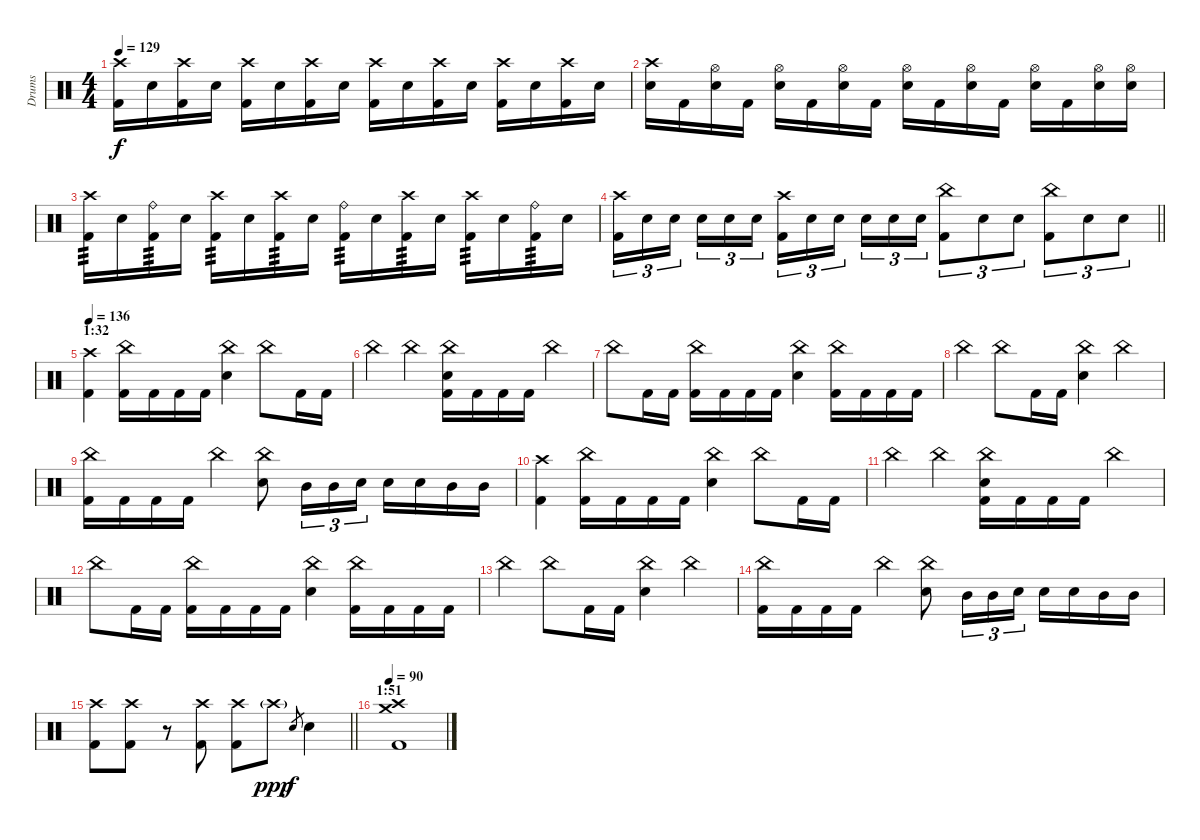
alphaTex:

\track ("Drums" "Drums") {instrument percussion}
\staff {score}
\articulation defaults
\ts (4 4)
\tempo 129
\clef neutral
\ks c
("Crash high (hit)" "Kick (hit) 2").16{dy f} "Electric Snare (hit)".16 ("Crash high (hit)" "Kick (hit) 2").16 "Electric Snare (hit)".16 ("Crash high (hit)" "Kick (hit) 2").16 "Electric Snare (hit)".16 ("Crash high (hit)" "Kick (hit) 2").16 "Electric Snare (hit)".16 ("Crash high (hit)" "Kick (hit) 2").16 "Electric Snare (hit)".16 ("Crash high (hit)" "Kick (hit) 2").16 "Electric Snare (hit)".16 ("Crash high (hit)" "Kick (hit) 2").16 "Electric Snare (hit)".16 ("Crash high (hit)" "Kick (hit) 2").16 "Electric Snare (hit)".16 |
("Electric Snare (hit)" "Crash high (hit)").16 "Kick (hit) 2".16 ("Electric Snare (hit)" "Hi-Hat (open)").16 "Kick (hit) 2".16 ("Electric Snare (hit)" "Hi-Hat (open)").16 "Kick (hit) 2".16 ("Electric Snare (hit)" "Hi-Hat (open)").16 "Kick (hit) 2".16 ("Electric Snare (hit)" "Hi-Hat (open)").16 "Kick (hit) 2".16 ("Electric Snare (hit)" "Hi-Hat (open)").16 "Kick (hit) 2".16 ("Electric Snare (hit)" "Hi-Hat (open)").16 "Kick (hit) 2".16 ("Electric Snare (hit)" "Hi-Hat (open)").16 ("Electric Snare (hit)" "Hi-Hat (open)").16 |
("Crash high (hit)" "Kick (hit) 2").16{tp 3} "Electric Snare (hit)".16 ("Kick (hit) 2" "Ride (bell)").16{tp 3} "Electric Snare (hit)".16 ("Crash high (hit)" "Kick (hit) 2").16{tp 3} "Electric Snare (hit)".16 ("Crash high (hit)" "Kick (hit) 2").16{tp 3} "Electric Snare (hit)".16 ("Kick (hit) 2" "Ride (bell)").16{tp 3} "Electric Snare (hit)".16 ("Crash high (hit)" "Kick (hit) 2").16{tp 3} "Electric Snare (hit)".16 ("Crash high (hit)" "Kick (hit) 2").16{tp 3} "Electric Snare (hit)".16 ("Kick (hit) 2" "Ride (bell)").16{tp 3} "Electric Snare (hit)".16 |
\barLineRight lightlight
("Kick (hit) 2" "Crash high (hit)").16{tu (3 2)} "Electric Snare (hit)".16{tu (3 2)} "Electric Snare (hit)".16{tu (3 2)} "Electric Snare (hit)".16{tu (3 2)} "Electric Snare (hit)".16{tu (3 2)} "Electric Snare (hit)".16{tu (3 2)} ("Crash high (hit)" "Kick (hit) 2").16{tu (3 2)} "Electric Snare (hit)".16{tu (3 2)} "Electric Snare (hit)".16{tu (3 2)} "Electric Snare (hit)".16{tu (3 2)} "Electric Snare (hit)".16{tu (3 2)} "Electric Snare (hit)".16{tu (3 2)} ("China (hit)" "Kick (hit) 2").8{tu (3 2)} "Electric Snare (hit)".8{tu (3 2)} "Electric Snare (hit)".8{tu (3 2)} ("China (hit)" "Kick (hit) 2").8{tu (3 2)} "Electric Snare (hit)".8{tu (3 2)} "Electric Snare (hit)".8{tu (3 2)} |
\section ("" "1:32")
\tempo 136
("Crash high (hit)" "Kick (hit) 2").4 ("China (hit)" "Kick (hit) 2").16 "Kick (hit) 2".16 "Kick (hit) 2".16 "Kick (hit) 2".16 ("China (hit)" "Electric Snare (hit)").4 "China (hit)".8 "Kick (hit) 2".16 "Kick (hit) 2".16 |
"China (hit)".4 "China (hit)".4 ("China (hit)" "Electric Snare (hit)" "Kick (hit) 2").16 "Kick (hit) 2".16 "Kick (hit) 2".16 "Kick (hit) 2".16 "China (hit)".4 |
"China (hit)".8 "Kick (hit) 2".16 "Kick (hit) 2".16 ("China (hit)" "Kick (hit) 2").16 "Kick (hit) 2".16 "Kick (hit) 2".16 "Kick (hit) 2".16 ("China (hit)" "Electric Snare (hit)").4 ("China (hit)" "Kick (hit) 2").16 "Kick (hit) 2".16 "Kick (hit) 2".16 "Kick (hit) 2".16 |
"China (hit)".4 "China (hit)".8 "Kick (hit) 2".16 "Kick (hit) 2".16 ("China (hit)" "Electric Snare (hit)").4 "China (hit)".4 |
("China (hit)" "Kick (hit) 2").16 "Kick (hit) 2".16 "Kick (hit) 2".16 "Kick (hit) 2".16 "China (hit)".4 ("China (hit)" "Electric Snare (hit)").8 "Mid Tom (hit)".16{tu (3 2)} "Mid Tom (hit)".16{tu (3 2)} "Electric Snare (hit)".16{tu (3 2)} "Electric Snare (hit)".16 "Electric Snare (hit)".16 "Mid Tom (hit)".16 "Mid Tom (hit)".16 |
("Crash high (hit)" "Kick (hit) 2").4 ("China (hit)" "Kick (hit) 2").16 "Kick (hit) 2".16 "Kick (hit) 2".16 "Kick (hit) 2".16 ("China (hit)" "Electric Snare (hit)").4 "China (hit)".8 "Kick (hit) 2".16 "Kick (hit) 2".16 |
"China (hit)".4 "China (hit)".4 ("China (hit)" "Electric Snare (hit)" "Kick (hit) 2").16 "Kick (hit) 2".16 "Kick (hit) 2".16 "Kick (hit) 2".16 "China (hit)".4 |
"China (hit)".8 "Kick (hit) 2".16 "Kick (hit) 2".16 ("China (hit)" "Kick (hit) 2").16 "Kick (hit) 2".16 "Kick (hit) 2".16 "Kick (hit) 2".16 ("China (hit)" "Electric Snare (hit)").4 ("China (hit)" "Kick (hit) 2").16 "Kick (hit) 2".16 "Kick (hit) 2".16 "Kick (hit) 2".16 |
"China (hit)".4 "China (hit)".8 "Kick (hit) 2".16 "Kick (hit) 2".16 ("China (hit)" "Electric Snare (hit)").4 "China (hit)".4 |
("China (hit)" "Kick (hit) 2").16 "Kick (hit) 2".16 "Kick (hit) 2".16 "Kick (hit) 2".16 "China (hit)".4 ("China (hit)" "Electric Snare (hit)").8 "Mid Tom (hit)".16{tu (3 2)} "Mid Tom (hit)".16{tu (3 2)} "Electric Snare (hit)".16{tu (3 2)} "Electric Snare (hit)".16 "Electric Snare (hit)".16 "Mid Tom (hit)".16 "Mid Tom (hit)".16 |
\barLineRight lightlight
("Crash high (hit)" "Kick (hit) 2").8 ("Crash high (hit)" "Kick (hit) 2").8 r.8{volume 0} ("Crash high (hit)" "Kick (hit) 2").8{volume 13} ("Crash high (hit)" "Kick (hit) 2").8 "Crash high (hit)"{g}.8{dy ppp volume 0} "Electric Snare (hit)".8{gr dy f} "Electric Snare (hit)".4{volume 13} |
\section ("" "1:51")
\tempo 90
("Crash high (hit)" "Crash medium (hit)" "Kick (hit) 2").1
